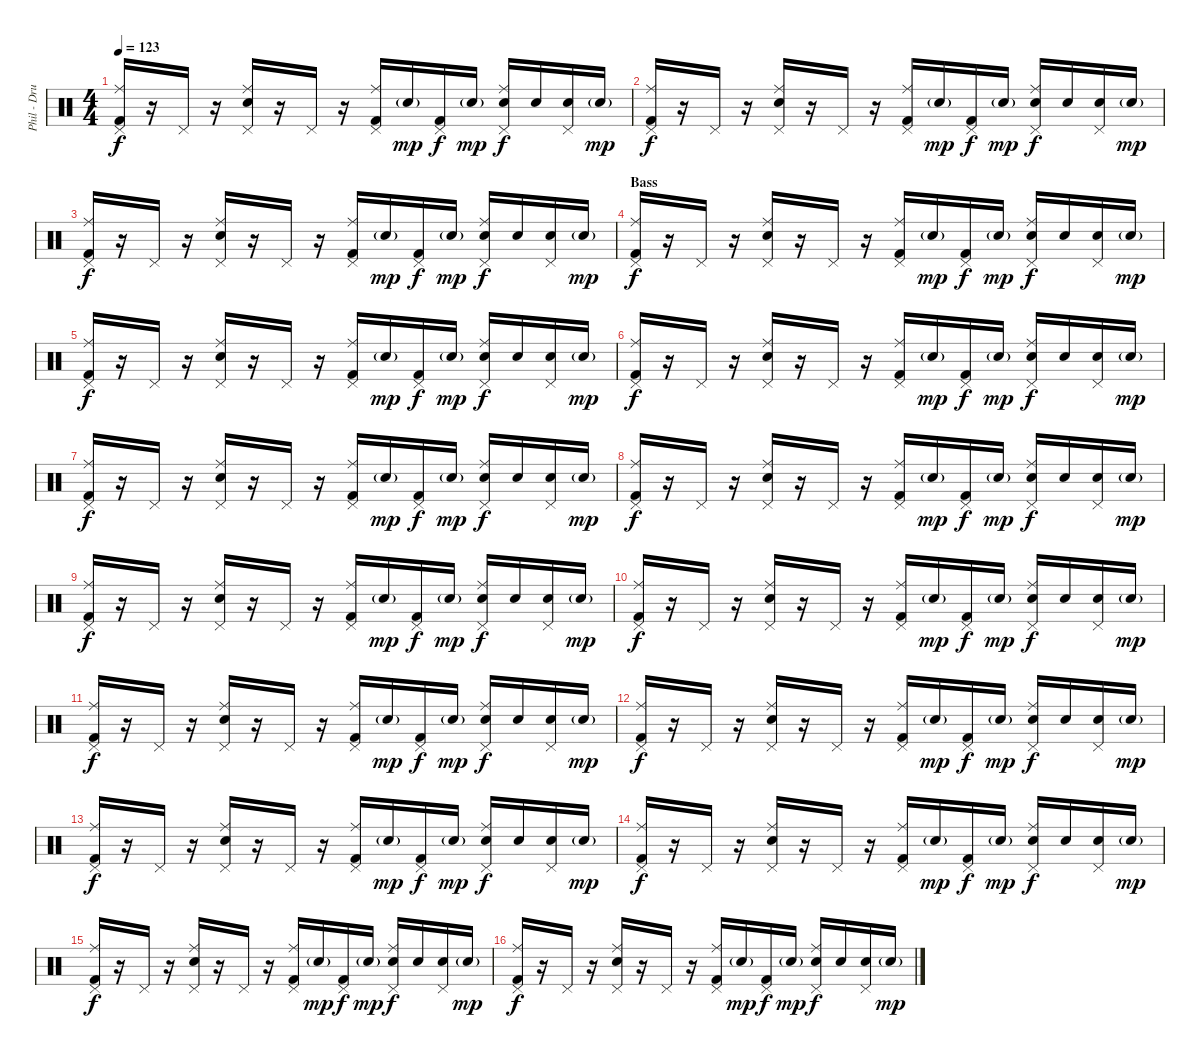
\track ("Phil - Drums" "Phil - Dru") {instrument percussion}
\staff {score}
\articulation defaults
\ts (4 4)
\tempo 123
\clef neutral
\ks c
("Ride (middle)" "Kick (hit) 2" "Pedal Hi-Hat (hit)").16{dy f} r.16 "Pedal Hi-Hat (hit)".16 r.16 ("Ride (middle)" "Snare (hit) 2" "Pedal Hi-Hat (hit)").16 r.16 "Pedal Hi-Hat (hit)".16 r.16 ("Ride (middle)" "Kick (hit) 2" "Pedal Hi-Hat (hit)").16 "Snare (hit) 2"{g}.16{dy mp} ("Kick (hit) 2" "Pedal Hi-Hat (hit)").16{dy f} "Snare (hit) 2"{g}.16{dy mp} ("Ride (middle)" "Snare (hit) 2" "Pedal Hi-Hat (hit)").16{dy f} "Snare (hit) 2".16 ("Snare (hit) 2" "Pedal Hi-Hat (hit)").16 "Snare (hit) 2"{g}.16{dy mp} |
("Ride (middle)" "Kick (hit) 2" "Pedal Hi-Hat (hit)").16{dy f} r.16 "Pedal Hi-Hat (hit)".16 r.16 ("Ride (middle)" "Snare (hit) 2" "Pedal Hi-Hat (hit)").16 r.16 "Pedal Hi-Hat (hit)".16 r.16 ("Ride (middle)" "Kick (hit) 2" "Pedal Hi-Hat (hit)").16 "Snare (hit) 2"{g}.16{dy mp} ("Kick (hit) 2" "Pedal Hi-Hat (hit)").16{dy f} "Snare (hit) 2"{g}.16{dy mp} ("Ride (middle)" "Snare (hit) 2" "Pedal Hi-Hat (hit)").16{dy f} "Snare (hit) 2".16 ("Snare (hit) 2" "Pedal Hi-Hat (hit)").16 "Snare (hit) 2"{g}.16{dy mp} |
("Ride (middle)" "Kick (hit) 2" "Pedal Hi-Hat (hit)").16{dy f} r.16 "Pedal Hi-Hat (hit)".16 r.16 ("Ride (middle)" "Snare (hit) 2" "Pedal Hi-Hat (hit)").16 r.16 "Pedal Hi-Hat (hit)".16 r.16 ("Ride (middle)" "Kick (hit) 2" "Pedal Hi-Hat (hit)").16 "Snare (hit) 2"{g}.16{dy mp} ("Kick (hit) 2" "Pedal Hi-Hat (hit)").16{dy f} "Snare (hit) 2"{g}.16{dy mp} ("Ride (middle)" "Snare (hit) 2" "Pedal Hi-Hat (hit)").16{dy f} "Snare (hit) 2".16 ("Snare (hit) 2" "Pedal Hi-Hat (hit)").16 "Snare (hit) 2"{g}.16{dy mp} |
\section ("" "Bass")
("Ride (middle)" "Kick (hit) 2" "Pedal Hi-Hat (hit)").16{dy f} r.16 "Pedal Hi-Hat (hit)".16 r.16 ("Ride (middle)" "Snare (hit) 2" "Pedal Hi-Hat (hit)").16 r.16 "Pedal Hi-Hat (hit)".16 r.16 ("Ride (middle)" "Kick (hit) 2" "Pedal Hi-Hat (hit)").16 "Snare (hit) 2"{g}.16{dy mp} ("Kick (hit) 2" "Pedal Hi-Hat (hit)").16{dy f} "Snare (hit) 2"{g}.16{dy mp} ("Ride (middle)" "Snare (hit) 2" "Pedal Hi-Hat (hit)").16{dy f} "Snare (hit) 2".16 ("Snare (hit) 2" "Pedal Hi-Hat (hit)").16 "Snare (hit) 2"{g}.16{dy mp} |
("Ride (middle)" "Kick (hit) 2" "Pedal Hi-Hat (hit)").16{dy f} r.16 "Pedal Hi-Hat (hit)".16 r.16 ("Ride (middle)" "Snare (hit) 2" "Pedal Hi-Hat (hit)").16 r.16 "Pedal Hi-Hat (hit)".16 r.16 ("Ride (middle)" "Kick (hit) 2" "Pedal Hi-Hat (hit)").16 "Snare (hit) 2"{g}.16{dy mp} ("Kick (hit) 2" "Pedal Hi-Hat (hit)").16{dy f} "Snare (hit) 2"{g}.16{dy mp} ("Ride (middle)" "Snare (hit) 2" "Pedal Hi-Hat (hit)").16{dy f} "Snare (hit) 2".16 ("Snare (hit) 2" "Pedal Hi-Hat (hit)").16 "Snare (hit) 2"{g}.16{dy mp} |
("Ride (middle)" "Kick (hit) 2" "Pedal Hi-Hat (hit)").16{dy f} r.16 "Pedal Hi-Hat (hit)".16 r.16 ("Ride (middle)" "Snare (hit) 2" "Pedal Hi-Hat (hit)").16 r.16 "Pedal Hi-Hat (hit)".16 r.16 ("Ride (middle)" "Kick (hit) 2" "Pedal Hi-Hat (hit)").16 "Snare (hit) 2"{g}.16{dy mp} ("Kick (hit) 2" "Pedal Hi-Hat (hit)").16{dy f} "Snare (hit) 2"{g}.16{dy mp} ("Ride (middle)" "Snare (hit) 2" "Pedal Hi-Hat (hit)").16{dy f} "Snare (hit) 2".16 ("Snare (hit) 2" "Pedal Hi-Hat (hit)").16 "Snare (hit) 2"{g}.16{dy mp} |
("Ride (middle)" "Kick (hit) 2" "Pedal Hi-Hat (hit)").16{dy f} r.16 "Pedal Hi-Hat (hit)".16 r.16 ("Ride (middle)" "Snare (hit) 2" "Pedal Hi-Hat (hit)").16 r.16 "Pedal Hi-Hat (hit)".16 r.16 ("Ride (middle)" "Kick (hit) 2" "Pedal Hi-Hat (hit)").16 "Snare (hit) 2"{g}.16{dy mp} ("Kick (hit) 2" "Pedal Hi-Hat (hit)").16{dy f} "Snare (hit) 2"{g}.16{dy mp} ("Ride (middle)" "Snare (hit) 2" "Pedal Hi-Hat (hit)").16{dy f} "Snare (hit) 2".16 ("Snare (hit) 2" "Pedal Hi-Hat (hit)").16 "Snare (hit) 2"{g}.16{dy mp} |
("Ride (middle)" "Kick (hit) 2" "Pedal Hi-Hat (hit)").16{dy f} r.16 "Pedal Hi-Hat (hit)".16 r.16 ("Ride (middle)" "Snare (hit) 2" "Pedal Hi-Hat (hit)").16 r.16 "Pedal Hi-Hat (hit)".16 r.16 ("Ride (middle)" "Kick (hit) 2" "Pedal Hi-Hat (hit)").16 "Snare (hit) 2"{g}.16{dy mp} ("Kick (hit) 2" "Pedal Hi-Hat (hit)").16{dy f} "Snare (hit) 2"{g}.16{dy mp} ("Ride (middle)" "Snare (hit) 2" "Pedal Hi-Hat (hit)").16{dy f} "Snare (hit) 2".16 ("Snare (hit) 2" "Pedal Hi-Hat (hit)").16 "Snare (hit) 2"{g}.16{dy mp} |
("Ride (middle)" "Kick (hit) 2" "Pedal Hi-Hat (hit)").16{dy f} r.16 "Pedal Hi-Hat (hit)".16 r.16 ("Ride (middle)" "Snare (hit) 2" "Pedal Hi-Hat (hit)").16 r.16 "Pedal Hi-Hat (hit)".16 r.16 ("Ride (middle)" "Kick (hit) 2" "Pedal Hi-Hat (hit)").16 "Snare (hit) 2"{g}.16{dy mp} ("Kick (hit) 2" "Pedal Hi-Hat (hit)").16{dy f} "Snare (hit) 2"{g}.16{dy mp} ("Ride (middle)" "Snare (hit) 2" "Pedal Hi-Hat (hit)").16{dy f} "Snare (hit) 2".16 ("Snare (hit) 2" "Pedal Hi-Hat (hit)").16 "Snare (hit) 2"{g}.16{dy mp} |
("Ride (middle)" "Kick (hit) 2" "Pedal Hi-Hat (hit)").16{dy f} r.16 "Pedal Hi-Hat (hit)".16 r.16 ("Ride (middle)" "Snare (hit) 2" "Pedal Hi-Hat (hit)").16 r.16 "Pedal Hi-Hat (hit)".16 r.16 ("Ride (middle)" "Kick (hit) 2" "Pedal Hi-Hat (hit)").16 "Snare (hit) 2"{g}.16{dy mp} ("Kick (hit) 2" "Pedal Hi-Hat (hit)").16{dy f} "Snare (hit) 2"{g}.16{dy mp} ("Ride (middle)" "Snare (hit) 2" "Pedal Hi-Hat (hit)").16{dy f} "Snare (hit) 2".16 ("Snare (hit) 2" "Pedal Hi-Hat (hit)").16 "Snare (hit) 2"{g}.16{dy mp} |
("Ride (middle)" "Kick (hit) 2" "Pedal Hi-Hat (hit)").16{dy f} r.16 "Pedal Hi-Hat (hit)".16 r.16 ("Ride (middle)" "Snare (hit) 2" "Pedal Hi-Hat (hit)").16 r.16 "Pedal Hi-Hat (hit)".16 r.16 ("Ride (middle)" "Kick (hit) 2" "Pedal Hi-Hat (hit)").16 "Snare (hit) 2"{g}.16{dy mp} ("Kick (hit) 2" "Pedal Hi-Hat (hit)").16{dy f} "Snare (hit) 2"{g}.16{dy mp} ("Ride (middle)" "Snare (hit) 2" "Pedal Hi-Hat (hit)").16{dy f} "Snare (hit) 2".16 ("Snare (hit) 2" "Pedal Hi-Hat (hit)").16 "Snare (hit) 2"{g}.16{dy mp} |
("Ride (middle)" "Kick (hit) 2" "Pedal Hi-Hat (hit)").16{dy f} r.16 "Pedal Hi-Hat (hit)".16 r.16 ("Ride (middle)" "Snare (hit) 2" "Pedal Hi-Hat (hit)").16 r.16 "Pedal Hi-Hat (hit)".16 r.16 ("Ride (middle)" "Kick (hit) 2" "Pedal Hi-Hat (hit)").16 "Snare (hit) 2"{g}.16{dy mp} ("Kick (hit) 2" "Pedal Hi-Hat (hit)").16{dy f} "Snare (hit) 2"{g}.16{dy mp} ("Ride (middle)" "Snare (hit) 2" "Pedal Hi-Hat (hit)").16{dy f} "Snare (hit) 2".16 ("Snare (hit) 2" "Pedal Hi-Hat (hit)").16 "Snare (hit) 2"{g}.16{dy mp} |
("Ride (middle)" "Kick (hit) 2" "Pedal Hi-Hat (hit)").16{dy f} r.16 "Pedal Hi-Hat (hit)".16 r.16 ("Ride (middle)" "Snare (hit) 2" "Pedal Hi-Hat (hit)").16 r.16 "Pedal Hi-Hat (hit)".16 r.16 ("Ride (middle)" "Kick (hit) 2" "Pedal Hi-Hat (hit)").16 "Snare (hit) 2"{g}.16{dy mp} ("Kick (hit) 2" "Pedal Hi-Hat (hit)").16{dy f} "Snare (hit) 2"{g}.16{dy mp} ("Ride (middle)" "Snare (hit) 2" "Pedal Hi-Hat (hit)").16{dy f} "Snare (hit) 2".16 ("Snare (hit) 2" "Pedal Hi-Hat (hit)").16 "Snare (hit) 2"{g}.16{dy mp} |
("Ride (middle)" "Kick (hit) 2" "Pedal Hi-Hat (hit)").16{dy f} r.16 "Pedal Hi-Hat (hit)".16 r.16 ("Ride (middle)" "Snare (hit) 2" "Pedal Hi-Hat (hit)").16 r.16 "Pedal Hi-Hat (hit)".16 r.16 ("Ride (middle)" "Kick (hit) 2" "Pedal Hi-Hat (hit)").16 "Snare (hit) 2"{g}.16{dy mp} ("Kick (hit) 2" "Pedal Hi-Hat (hit)").16{dy f} "Snare (hit) 2"{g}.16{dy mp} ("Ride (middle)" "Snare (hit) 2" "Pedal Hi-Hat (hit)").16{dy f} "Snare (hit) 2".16 ("Snare (hit) 2" "Pedal Hi-Hat (hit)").16 "Snare (hit) 2"{g}.16{dy mp} |
("Ride (middle)" "Kick (hit) 2" "Pedal Hi-Hat (hit)").16{dy f} r.16 "Pedal Hi-Hat (hit)".16 r.16 ("Ride (middle)" "Snare (hit) 2" "Pedal Hi-Hat (hit)").16 r.16 "Pedal Hi-Hat (hit)".16 r.16 ("Ride (middle)" "Kick (hit) 2" "Pedal Hi-Hat (hit)").16 "Snare (hit) 2"{g}.16{dy mp} ("Kick (hit) 2" "Pedal Hi-Hat (hit)").16{dy f} "Snare (hit) 2"{g}.16{dy mp} ("Ride (middle)" "Snare (hit) 2" "Pedal Hi-Hat (hit)").16{dy f} "Snare (hit) 2".16 ("Snare (hit) 2" "Pedal Hi-Hat (hit)").16 "Snare (hit) 2"{g}.16{dy mp} |
("Ride (middle)" "Kick (hit) 2" "Pedal Hi-Hat (hit)").16{dy f} r.16 "Pedal Hi-Hat (hit)".16 r.16 ("Ride (middle)" "Snare (hit) 2" "Pedal Hi-Hat (hit)").16 r.16 "Pedal Hi-Hat (hit)".16 r.16 ("Ride (middle)" "Kick (hit) 2" "Pedal Hi-Hat (hit)").16 "Snare (hit) 2"{g}.16{dy mp} ("Kick (hit) 2" "Pedal Hi-Hat (hit)").16{dy f} "Snare (hit) 2"{g}.16{dy mp} ("Ride (middle)" "Snare (hit) 2" "Pedal Hi-Hat (hit)").16{dy f} "Snare (hit) 2".16 ("Snare (hit) 2" "Pedal Hi-Hat (hit)").16 "Snare (hit) 2"{g}.16{dy mp}
